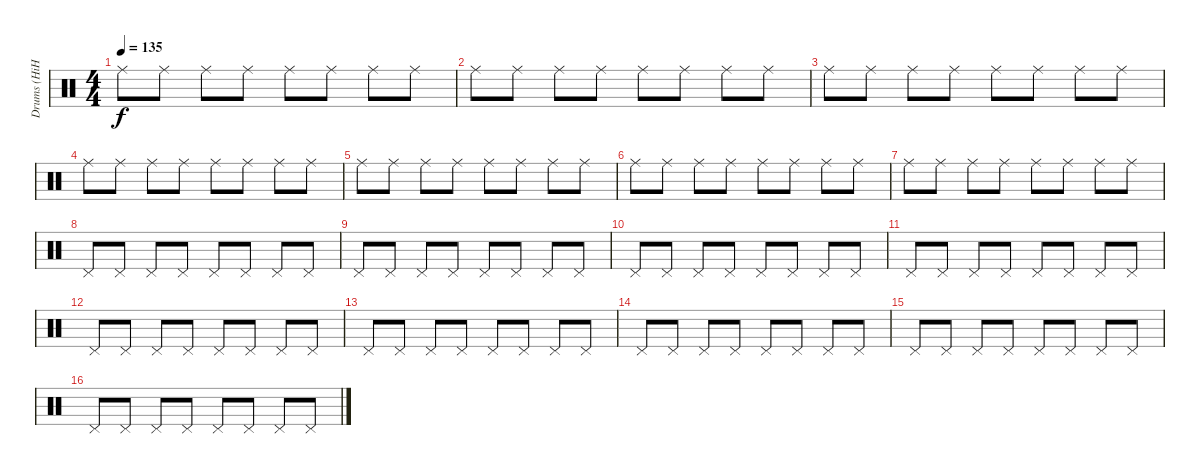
\track ("Drums (HiHat)" "Drums (HiH") {instrument percussion}
\staff {score}
\articulation defaults
\ts (4 4)
\tempo 135
\clef neutral
\ks c "Ride (middle)".8{dy f} "Ride (middle)".8 "Ride (middle)".8 "Ride (middle)".8 "Ride (middle)".8 "Ride (middle)".8 "Ride (middle)".8 "Ride (middle)".8
|
"Ride (middle)".8 "Ride (middle)".8 "Ride (middle)".8 "Ride (middle)".8 "Ride (middle)".8 "Ride (middle)".8 "Ride (middle)".8 "Ride (middle)".8 |
"Ride (middle)".8 "Ride (middle)".8 "Ride (middle)".8 "Ride (middle)".8 "Ride (middle)".8 "Ride (middle)".8 "Ride (middle)".8 "Ride (middle)".8 |
"Ride (middle)".8 "Ride (middle)".8 "Ride (middle)".8 "Ride (middle)".8 "Ride (middle)".8 "Ride (middle)".8 "Ride (middle)".8 "Ride (middle)".8 |
"Ride (middle)".8 "Ride (middle)".8 "Ride (middle)".8 "Ride (middle)".8 "Ride (middle)".8 "Ride (middle)".8 "Ride (middle)".8 "Ride (middle)".8 |
"Ride (middle)".8 "Ride (middle)".8 "Ride (middle)".8 "Ride (middle)".8 "Ride (middle)".8 "Ride (middle)".8 "Ride (middle)".8 "Ride (middle)".8 |
"Ride (middle)".8 "Ride (middle)".8 "Ride (middle)".8 "Ride (middle)".8 "Ride (middle)".8 "Ride (middle)".8 "Ride (middle)".8 "Ride (middle)".8 |
"Pedal Hi-Hat (hit)".8 "Pedal Hi-Hat (hit)".8 "Pedal Hi-Hat (hit)".8 "Pedal Hi-Hat (hit)".8 "Pedal Hi-Hat (hit)".8 "Pedal Hi-Hat (hit)".8 "Pedal Hi-Hat (hit)".8 "Pedal Hi-Hat (hit)".8 |
"Pedal Hi-Hat (hit)".8 "Pedal Hi-Hat (hit)".8 "Pedal Hi-Hat (hit)".8 "Pedal Hi-Hat (hit)".8 "Pedal Hi-Hat (hit)".8 "Pedal Hi-Hat (hit)".8 "Pedal Hi-Hat (hit)".8 "Pedal Hi-Hat (hit)".8 |
"Pedal Hi-Hat (hit)".8 "Pedal Hi-Hat (hit)".8 "Pedal Hi-Hat (hit)".8 "Pedal Hi-Hat (hit)".8 "Pedal Hi-Hat (hit)".8 "Pedal Hi-Hat (hit)".8 "Pedal Hi-Hat (hit)".8 "Pedal Hi-Hat (hit)".8 |
"Pedal Hi-Hat (hit)".8 "Pedal Hi-Hat (hit)".8 "Pedal Hi-Hat (hit)".8 "Pedal Hi-Hat (hit)".8 "Pedal Hi-Hat (hit)".8 "Pedal Hi-Hat (hit)".8 "Pedal Hi-Hat (hit)".8 "Pedal Hi-Hat (hit)".8 |
"Pedal Hi-Hat (hit)".8 "Pedal Hi-Hat (hit)".8 "Pedal Hi-Hat (hit)".8 "Pedal Hi-Hat (hit)".8 "Pedal Hi-Hat (hit)".8 "Pedal Hi-Hat (hit)".8 "Pedal Hi-Hat (hit)".8 "Pedal Hi-Hat (hit)".8 |
"Pedal Hi-Hat (hit)".8 "Pedal Hi-Hat (hit)".8 "Pedal Hi-Hat (hit)".8 "Pedal Hi-Hat (hit)".8 "Pedal Hi-Hat (hit)".8 "Pedal Hi-Hat (hit)".8 "Pedal Hi-Hat (hit)".8 "Pedal Hi-Hat (hit)".8 |
"Pedal Hi-Hat (hit)".8 "Pedal Hi-Hat (hit)".8 "Pedal Hi-Hat (hit)".8 "Pedal Hi-Hat (hit)".8 "Pedal Hi-Hat (hit)".8 "Pedal Hi-Hat (hit)".8 "Pedal Hi-Hat (hit)".8 "Pedal Hi-Hat (hit)".8 |
"Pedal Hi-Hat (hit)".8 "Pedal Hi-Hat (hit)".8 "Pedal Hi-Hat (hit)".8 "Pedal Hi-Hat (hit)".8 "Pedal Hi-Hat (hit)".8 "Pedal Hi-Hat (hit)".8 "Pedal Hi-Hat (hit)".8 "Pedal Hi-Hat (hit)".8 |
"Pedal Hi-Hat (hit)".8 "Pedal Hi-Hat (hit)".8 "Pedal Hi-Hat (hit)".8 "Pedal Hi-Hat (hit)".8 "Pedal Hi-Hat (hit)".8 "Pedal Hi-Hat (hit)".8 "Pedal Hi-Hat (hit)".8 "Pedal Hi-Hat (hit)".8
